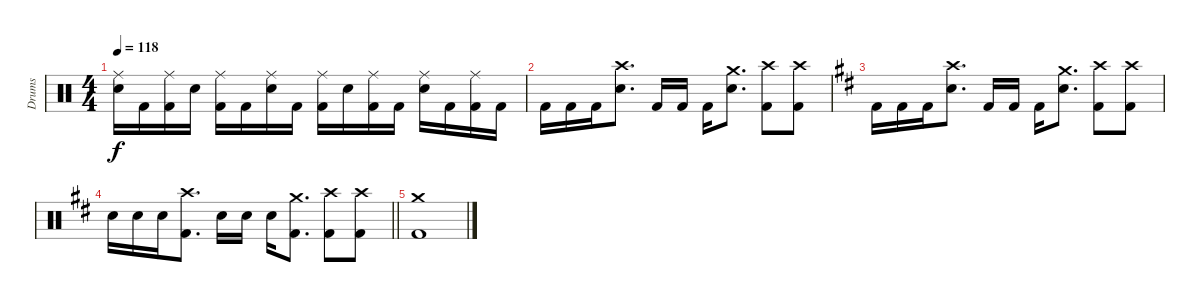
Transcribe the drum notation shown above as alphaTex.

\track ("Drums" "Drums") {instrument percussion}
\staff {score}
\articulation defaults
\ts (4 4)
\tempo 118
\clef neutral
\ks aminor
("Ride (middle)" "Snare (hit) 2").16{dy f} "Kick (hit) 2".16 ("Ride (middle)" "Kick (hit) 2").16 "Snare (hit) 2".16 ("Ride (middle)" "Kick (hit) 2").16 "Kick (hit) 2".16 ("Ride (middle)" "Snare (hit) 2").16 "Kick (hit) 2".16 ("Ride (middle)" "Kick (hit) 2").16 "Snare (hit) 2".16 ("Ride (middle)" "Kick (hit) 2").16 "Kick (hit) 2".16 ("Ride (middle)" "Snare (hit) 2").16 "Kick (hit) 2".16 ("Ride (middle)" "Kick (hit) 2").16 "Kick (hit) 2".16 |
"Kick (hit) 2".16 "Kick (hit) 2".16 "Kick (hit) 2".16 ("Crash high (hit)" "Snare (hit) 2").8{d} "Kick (hit) 2".16 "Kick (hit) 2".16 "Kick (hit) 2".16 ("Crash medium (hit)" "Snare (hit) 2").8{d} ("Crash high (hit)" "Kick (hit) 2").8 ("Crash high (hit)" "Kick (hit) 2").8 |
\ks bminor "Kick (hit) 2".16 "Kick (hit) 2".16 "Kick (hit) 2".16
("Crash high (hit)" "Snare (hit) 2").8{d} "Kick (hit) 2".16 "Kick (hit) 2".16 "Kick (hit) 2".16 ("Crash medium (hit)" "Snare (hit) 2").8{d} ("Crash high (hit)" "Kick (hit) 2").8 ("Crash high (hit)" "Kick (hit) 2").8 |
\barLineRight lightlight "Snare (hit) 2".16 "Snare (hit) 2".16 "Snare (hit) 2".16
("Crash high (hit)" "Kick (hit) 2").8{d} "Snare (hit) 2".16 "Snare (hit) 2".16 "Snare (hit) 2".16 ("Crash medium (hit)" "Kick (hit) 2").8{d} ("Crash high (hit)" "Kick (hit) 2").8 ("Crash high (hit)" "Kick (hit) 2").8 |
("Crash medium (hit)" "Kick (hit) 2").1
